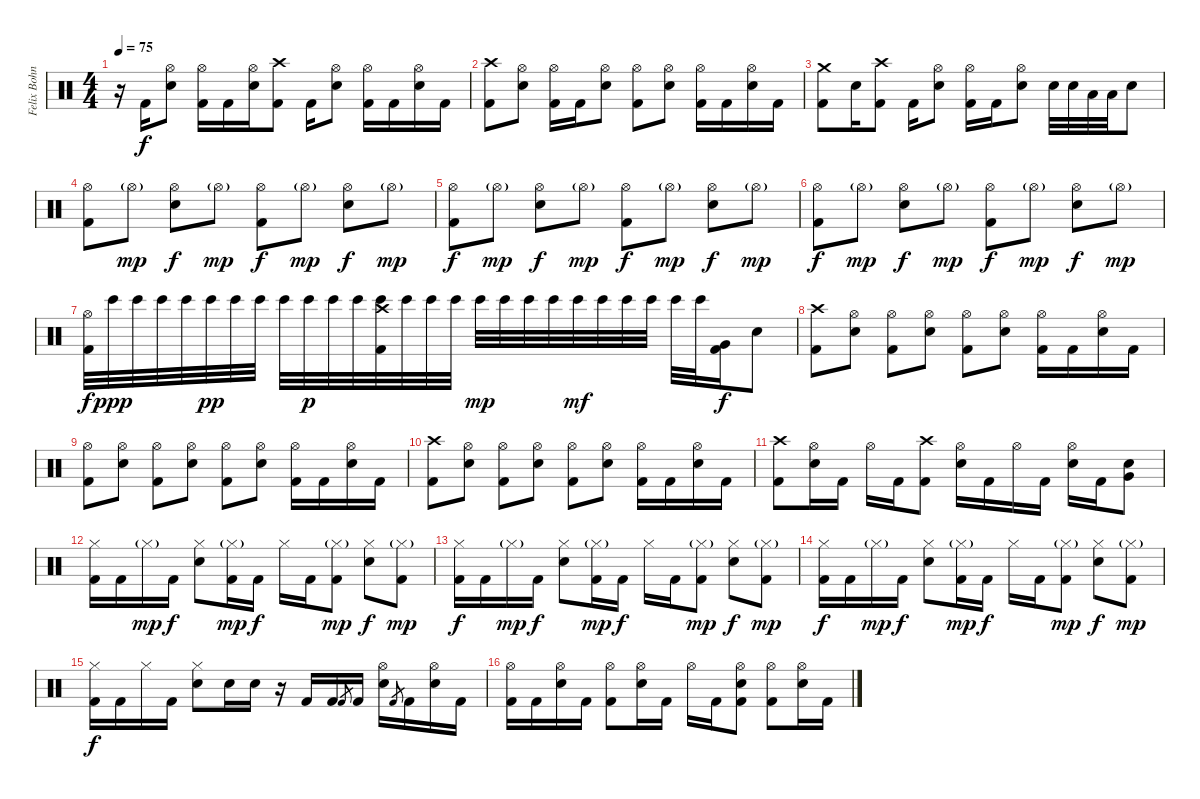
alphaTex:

\track ("Felix Bohnke" "Felix Bohn") {instrument percussion}
\staff {score}
\articulation defaults
\ts (4 4)
\tempo 75
\clef neutral
\ks c
r.16{dy f} "Kick (hit) 2".16 ("Hi-Hat (open)" "Snare (hit) 2").8 ("Hi-Hat (open)" "Kick (hit) 2").16 "Kick (hit) 2".16 ("Hi-Hat (open)" "Snare (hit) 2").16 ("Crash high (hit)" "Kick (hit) 2").8 "Kick (hit) 2".16 ("Hi-Hat (open)" "Snare (hit) 2").8 ("Hi-Hat (open)" "Kick (hit) 2").16 "Kick (hit) 2".16 ("Hi-Hat (open)" "Snare (hit) 2").16 "Kick (hit) 2".16 |
("Crash high (hit)" "Kick (hit) 2").8 ("Hi-Hat (open)" "Snare (hit) 2").8 ("Hi-Hat (open)" "Kick (hit) 2").16 "Kick (hit) 2".16 ("Hi-Hat (open)" "Snare (hit) 2").8 ("Hi-Hat (open)" "Kick (hit) 2").8 ("Hi-Hat (open)" "Snare (hit) 2").8 ("Hi-Hat (open)" "Kick (hit) 2").16 "Kick (hit) 2".16 ("Hi-Hat (open)" "Snare (hit) 2").16 "Kick (hit) 2".16 |
("Crash medium (hit)" "Kick (hit) 2").8 "Snare (hit) 2".16 ("Crash high (hit)" "Kick (hit) 2").8 "Kick (hit) 2".16 ("Hi-Hat (open)" "Snare (hit) 2").8 ("Hi-Hat (open)" "Kick (hit) 2").16 "Kick (hit) 2".16 ("Hi-Hat (open)" "Snare (hit) 2").8 "Snare (hit) 2".32 "Snare (hit) 2".32 "Low Tom (hit)".32 "Low Tom (hit)".32 "Snare (hit) 2".8 |
("Hi-Hat (open)" "Kick (hit) 2").8 "Hi-Hat (open)"{g}.8{dy mp} ("Hi-Hat (open)" "Snare (hit) 2").8{dy f} "Hi-Hat (open)"{g}.8{dy mp} ("Hi-Hat (open)" "Kick (hit) 2").8{dy f} "Hi-Hat (open)"{g}.8{dy mp} ("Hi-Hat (open)" "Snare (hit) 2").8{dy f} "Hi-Hat (open)"{g}.8{dy mp} |
("Hi-Hat (open)" "Kick (hit) 2").8{dy f} "Hi-Hat (open)"{g}.8{dy mp} ("Hi-Hat (open)" "Snare (hit) 2").8{dy f} "Hi-Hat (open)"{g}.8{dy mp} ("Hi-Hat (open)" "Kick (hit) 2").8{dy f} "Hi-Hat (open)"{g}.8{dy mp} ("Hi-Hat (open)" "Snare (hit) 2").8{dy f} "Hi-Hat (open)"{g}.8{dy mp} |
("Hi-Hat (open)" "Kick (hit) 2").8{dy f} "Hi-Hat (open)"{g}.8{dy mp} ("Hi-Hat (open)" "Snare (hit) 2").8{dy f} "Hi-Hat (open)"{g}.8{dy mp} ("Hi-Hat (open)" "Kick (hit) 2").8{dy f} "Hi-Hat (open)"{g}.8{dy mp} ("Hi-Hat (open)" "Snare (hit) 2").8{dy f} "Hi-Hat (open)"{g}.8{dy mp} |
("Hi-Hat (open)" "Kick (hit) 2").32{dy f} "Bongo High (hit)".32{dy ppp volume 5} "Bongo High (hit)".32{volume 16} "Bongo High (hit)".32 "Bongo High (hit)".32 "Bongo High (hit)".32{dy pp} "Bongo High (hit)".32 "Bongo High (hit)".32 "Bongo High (hit)".32 "Bongo High (hit)".32{dy p} "Bongo High (hit)".32 "Bongo High (hit)".32 ("Crash high (hit)" "Bongo High (hit)" "Kick (hit) 2").32 "Bongo High (hit)".32 "Bongo High (hit)".32 "Bongo High (hit)".32 "Bongo High (hit)".32{dy mp} "Bongo High (hit)".32 "Bongo High (hit)".32 "Bongo High (hit)".32 "Bongo High (hit)".32{dy mf} "Bongo High (hit)".32 "Bongo High (hit)".32 "Bongo High (hit)".32 "Bongo High (hit)".32 "Bongo High (hit)".32 ("Very Low Tom (hit)" "Kick (hit) 2").16{dy f} "Snare (hit) 2".8 |
("Crash high (hit)" "Kick (hit) 2").8 ("Hi-Hat (open)" "Snare (hit) 2").8 ("Hi-Hat (open)" "Kick (hit) 2").8 ("Hi-Hat (open)" "Snare (hit) 2").8 ("Hi-Hat (open)" "Kick (hit) 2").8 ("Hi-Hat (open)" "Snare (hit) 2").8 ("Hi-Hat (open)" "Kick (hit) 2").16 "Kick (hit) 2".16 ("Hi-Hat (open)" "Snare (hit) 2").16 "Kick (hit) 2".16 |
("Hi-Hat (open)" "Kick (hit) 2").8 ("Hi-Hat (open)" "Snare (hit) 2").8 ("Hi-Hat (open)" "Kick (hit) 2").8 ("Hi-Hat (open)" "Snare (hit) 2").8 ("Hi-Hat (open)" "Kick (hit) 2").8 ("Hi-Hat (open)" "Snare (hit) 2").8 ("Hi-Hat (open)" "Kick (hit) 2").16 "Kick (hit) 2".16 ("Hi-Hat (open)" "Snare (hit) 2").16 "Kick (hit) 2".16 |
("Crash high (hit)" "Kick (hit) 2").8 ("Hi-Hat (open)" "Snare (hit) 2").8 ("Hi-Hat (open)" "Kick (hit) 2").8 ("Hi-Hat (open)" "Snare (hit) 2").8 ("Hi-Hat (open)" "Kick (hit) 2").8 ("Hi-Hat (open)" "Snare (hit) 2").8 ("Hi-Hat (open)" "Kick (hit) 2").16 "Kick (hit) 2".16 ("Hi-Hat (open)" "Snare (hit) 2").16 "Kick (hit) 2".16 |
("Crash high (hit)" "Kick (hit) 2").8 ("Hi-Hat (open)" "Snare (hit) 2").16 "Kick (hit) 2".16 "Hi-Hat (open)".16 "Kick (hit) 2".16 ("Crash high (hit)" "Kick (hit) 2").8 ("Hi-Hat (open)" "Snare (hit) 2").16 "Kick (hit) 2".16 "Hi-Hat (open)".16 "Kick (hit) 2".16 ("Hi-Hat (open)" "Snare (hit) 2").16 "Kick (hit) 2".16 ("Snare (hit) 2" "Very Low Tom (hit)").8 |
("Hi-Hat (closed)" "Kick (hit) 2").16 "Kick (hit) 2".16 "Hi-Hat (closed)"{g}.16{dy mp} "Kick (hit) 2".16{dy f} ("Hi-Hat (closed)" "Snare (hit) 2").8 ("Hi-Hat (closed)"{g} "Kick (hit) 2").16{dy mp} "Kick (hit) 2".16{dy f} "Hi-Hat (closed)".16 "Kick (hit) 2".16 ("Hi-Hat (closed)"{g} "Kick (hit) 2").8{dy mp} ("Hi-Hat (closed)" "Snare (hit) 2").8{dy f} ("Hi-Hat (closed)"{g} "Kick (hit) 2").8{dy mp} |
("Hi-Hat (closed)" "Kick (hit) 2").16{dy f} "Kick (hit) 2".16 "Hi-Hat (closed)"{g}.16{dy mp} "Kick (hit) 2".16{dy f} ("Hi-Hat (closed)" "Snare (hit) 2").8 ("Hi-Hat (closed)"{g} "Kick (hit) 2").16{dy mp} "Kick (hit) 2".16{dy f} "Hi-Hat (closed)".16 "Kick (hit) 2".16 ("Hi-Hat (closed)"{g} "Kick (hit) 2").8{dy mp} ("Hi-Hat (closed)" "Snare (hit) 2").8{dy f} ("Hi-Hat (closed)"{g} "Kick (hit) 2").8{dy mp} |
("Hi-Hat (closed)" "Kick (hit) 2").16{dy f} "Kick (hit) 2".16 "Hi-Hat (closed)"{g}.16{dy mp} "Kick (hit) 2".16{dy f} ("Hi-Hat (closed)" "Snare (hit) 2").8 ("Hi-Hat (closed)"{g} "Kick (hit) 2").16{dy mp} "Kick (hit) 2".16{dy f} "Hi-Hat (closed)".16 "Kick (hit) 2".16 ("Hi-Hat (closed)"{g} "Kick (hit) 2").8{dy mp} ("Hi-Hat (closed)" "Snare (hit) 2").8{dy f} ("Hi-Hat (closed)"{g} "Kick (hit) 2").8{dy mp} |
("Hi-Hat (closed)" "Kick (hit) 2").16{dy f} "Kick (hit) 2".16 "Hi-Hat (closed)".16 "Kick (hit) 2".16 ("Hi-Hat (closed)" "Snare (hit) 2").8 "Snare (hit) 2".16 "Snare (hit) 2".16 r.16 "Kick (hit) 2".16 "Kick (hit) 2".16 "Kick (hit) 2".8{gr} "Kick (hit) 2".16 ("Hi-Hat (open)" "Snare (hit) 2").16 "Kick (hit) 2".8{gr} "Kick (hit) 2".16 ("Hi-Hat (open)" "Snare (hit) 2").16 "Kick (hit) 2".16 |
("Hi-Hat (open)" "Kick (hit) 2").16 "Kick (hit) 2".16 ("Hi-Hat (open)" "Snare (hit) 2").16 "Kick (hit) 2".16 ("Hi-Hat (open)" "Kick (hit) 2").8 ("Hi-Hat (open)" "Snare (hit) 2").16 "Kick (hit) 2".16 "Hi-Hat (open)".16 "Kick (hit) 2".16 ("Hi-Hat (open)" "Snare (hit) 2" "Kick (hit) 2").8 ("Hi-Hat (open)" "Kick (hit) 2").8 ("Hi-Hat (open)" "Snare (hit) 2").16 "Kick (hit) 2".16
